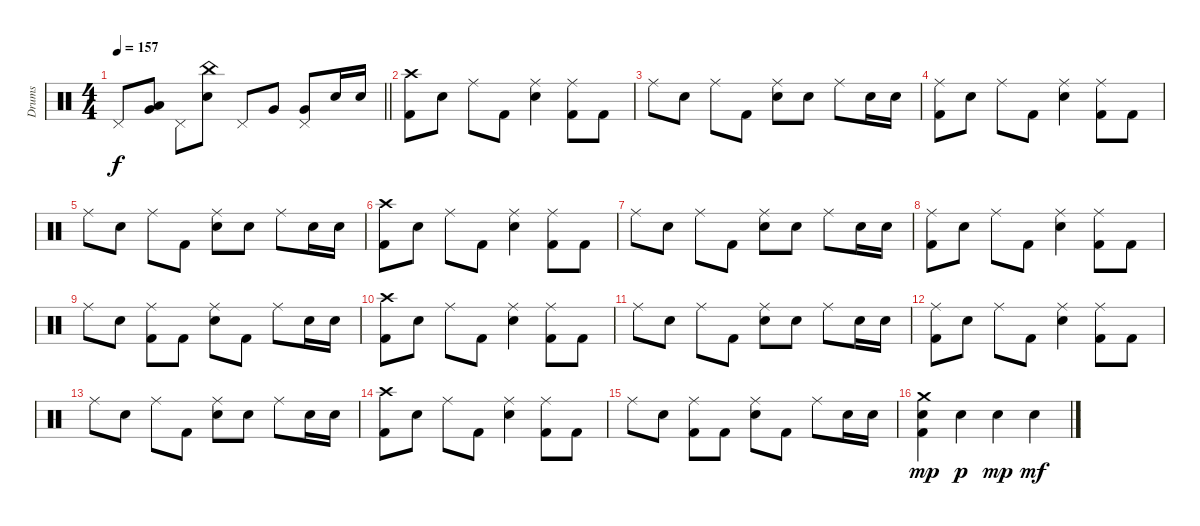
\track ("Drums" "Drums") {instrument percussion}
\staff {score}
\articulation defaults
\ts (4 4)
\tempo 157
\clef neutral
\barLineRight lightlight
\ks c "Pedal Hi-Hat (hit)".8{dy f}
("Low Tom (hit)" "Very Low Tom (hit)").8 "Pedal Hi-Hat (hit)".8 ("China (hit)" "Electric Snare (hit)").8 "Pedal Hi-Hat (hit)".8 "Very Low Tom (hit)".8 ("Pedal Hi-Hat (hit)" "Very Low Tom (hit)").8 "Electric Snare (hit)".16 "Electric Snare (hit)".16 |
\section ("" "")
("Crash high (hit)" "Kick (hit) 2").8 "Electric Snare (hit)".8 "Ride (middle)".8 "Kick (hit) 2".8 ("Ride (middle)" "Electric Snare (hit)").4 ("Ride (middle)" "Kick (hit) 2").8 "Kick (hit) 2".8 |
"Ride (middle)".8 "Electric Snare (hit)".8 "Ride (middle)".8 "Kick (hit) 2".8 ("Ride (middle)" "Electric Snare (hit)").8 "Electric Snare (hit)".8 "Ride (middle)".8 "Electric Snare (hit)".16 "Electric Snare (hit)".16 |
("Ride (middle)" "Kick (hit) 2").8 "Electric Snare (hit)".8 "Ride (middle)".8 "Kick (hit) 2".8 ("Ride (middle)" "Electric Snare (hit)").4 ("Ride (middle)" "Kick (hit) 2").8 "Kick (hit) 2".8 |
"Ride (middle)".8 "Electric Snare (hit)".8 "Ride (middle)".8 "Kick (hit) 2".8 ("Ride (middle)" "Electric Snare (hit)").8 "Electric Snare (hit)".8 "Ride (middle)".8 "Electric Snare (hit)".16 "Electric Snare (hit)".16 |
("Crash high (hit)" "Kick (hit) 2").8 "Electric Snare (hit)".8 "Ride (middle)".8 "Kick (hit) 2".8 ("Ride (middle)" "Electric Snare (hit)").4 ("Ride (middle)" "Kick (hit) 2").8 "Kick (hit) 2".8 |
"Ride (middle)".8 "Electric Snare (hit)".8 "Ride (middle)".8 "Kick (hit) 2".8 ("Ride (middle)" "Electric Snare (hit)").8 "Electric Snare (hit)".8 "Ride (middle)".8 "Electric Snare (hit)".16 "Electric Snare (hit)".16 |
("Ride (middle)" "Kick (hit) 2").8 "Electric Snare (hit)".8 "Ride (middle)".8 "Kick (hit) 2".8 ("Ride (middle)" "Electric Snare (hit)").4 ("Ride (middle)" "Kick (hit) 2").8 "Kick (hit) 2".8 |
"Ride (middle)".8 "Electric Snare (hit)".8 ("Ride (middle)" "Kick (hit) 2").8 "Kick (hit) 2".8 ("Ride (middle)" "Electric Snare (hit)").8 "Kick (hit) 2".8 "Ride (middle)".8 "Electric Snare (hit)".16 "Electric Snare (hit)".16 |
("Crash high (hit)" "Kick (hit) 2").8 "Electric Snare (hit)".8 "Ride (middle)".8 "Kick (hit) 2".8 ("Ride (middle)" "Electric Snare (hit)").4 ("Ride (middle)" "Kick (hit) 2").8 "Kick (hit) 2".8 |
"Ride (middle)".8 "Electric Snare (hit)".8 "Ride (middle)".8 "Kick (hit) 2".8 ("Ride (middle)" "Electric Snare (hit)").8 "Electric Snare (hit)".8 "Ride (middle)".8 "Electric Snare (hit)".16 "Electric Snare (hit)".16 |
("Ride (middle)" "Kick (hit) 2").8 "Electric Snare (hit)".8 "Ride (middle)".8 "Kick (hit) 2".8 ("Ride (middle)" "Electric Snare (hit)").4 ("Ride (middle)" "Kick (hit) 2").8 "Kick (hit) 2".8 |
"Ride (middle)".8 "Electric Snare (hit)".8 "Ride (middle)".8 "Kick (hit) 2".8 ("Ride (middle)" "Electric Snare (hit)").8 "Electric Snare (hit)".8 "Ride (middle)".8 "Electric Snare (hit)".16 "Electric Snare (hit)".16 |
("Crash high (hit)" "Kick (hit) 2").8 "Electric Snare (hit)".8 "Ride (middle)".8 "Kick (hit) 2".8 ("Ride (middle)" "Electric Snare (hit)").4 ("Ride (middle)" "Kick (hit) 2").8 "Kick (hit) 2".8 |
"Ride (middle)".8 "Electric Snare (hit)".8 ("Ride (middle)" "Kick (hit) 2").8 "Kick (hit) 2".8 ("Ride (middle)" "Electric Snare (hit)").8 "Kick (hit) 2".8 "Ride (middle)".8 "Electric Snare (hit)".16 "Electric Snare (hit)".16 |
("Crash medium (hit)" "Electric Snare (hit)" "Kick (hit) 2").4{dy mp} "Electric Snare (hit)".4{dy p} "Electric Snare (hit)".4{dy mp} "Electric Snare (hit)".4{dy mf}
